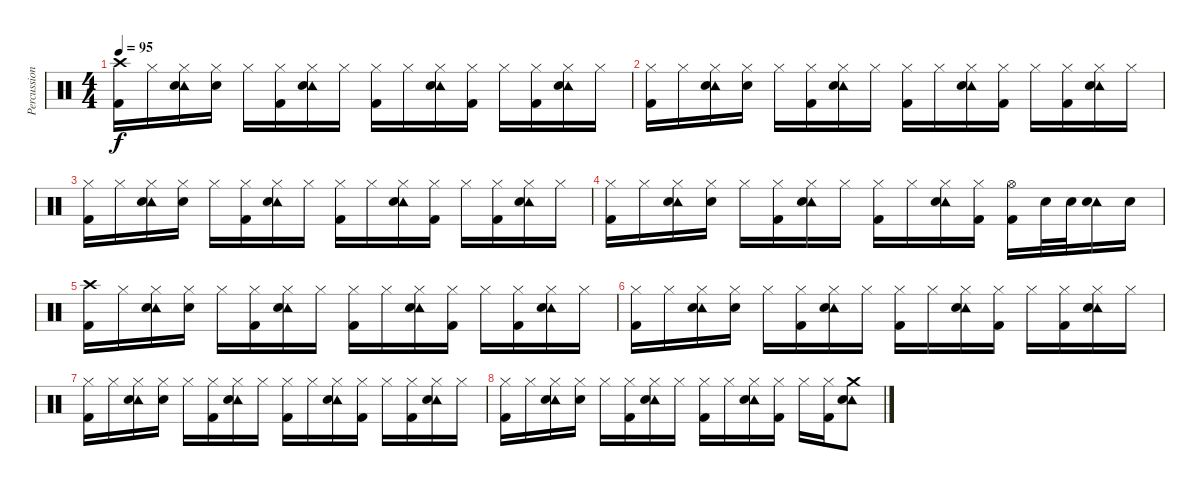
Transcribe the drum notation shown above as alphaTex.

\track ("Percussion" "Percussion") {instrument percussion}
\staff {score}
\articulation defaults
\ts (4 4)
\tempo 95
\clef neutral
\ks c
("Crash high (hit)" "Kick (hit) 2").16{dy f} "Hi-Hat (closed)".16 ("Tambourine (hit)" "Hi-Hat (closed)" "Electric Snare (hit)").16 ("Hi-Hat (closed)" "Electric Snare (hit)").16 "Hi-Hat (closed)".16 ("Hi-Hat (closed)" "Kick (hit) 2").16 ("Tambourine (hit)" "Hi-Hat (closed)" "Electric Snare (hit)").16 "Hi-Hat (closed)".16 ("Hi-Hat (closed)" "Kick (hit) 2").16 "Hi-Hat (closed)".16 ("Tambourine (hit)" "Hi-Hat (closed)" "Electric Snare (hit)").16 ("Hi-Hat (closed)" "Kick (hit) 2").16 "Hi-Hat (closed)".16 ("Hi-Hat (closed)" "Kick (hit) 2").16 ("Tambourine (hit)" "Hi-Hat (closed)" "Electric Snare (hit)").16 "Hi-Hat (closed)".16 |
("Hi-Hat (closed)" "Kick (hit) 2").16 "Hi-Hat (closed)".16 ("Tambourine (hit)" "Hi-Hat (closed)" "Electric Snare (hit)").16 ("Hi-Hat (closed)" "Electric Snare (hit)").16 "Hi-Hat (closed)".16 ("Hi-Hat (closed)" "Kick (hit) 2").16 ("Tambourine (hit)" "Hi-Hat (closed)" "Electric Snare (hit)").16 "Hi-Hat (closed)".16 ("Hi-Hat (closed)" "Kick (hit) 2").16 "Hi-Hat (closed)".16 ("Tambourine (hit)" "Hi-Hat (closed)" "Electric Snare (hit)").16 ("Hi-Hat (closed)" "Kick (hit) 2").16 "Hi-Hat (closed)".16 ("Hi-Hat (closed)" "Kick (hit) 2").16 ("Tambourine (hit)" "Hi-Hat (closed)" "Electric Snare (hit)").16 "Hi-Hat (closed)".16 |
("Hi-Hat (closed)" "Kick (hit) 2").16 "Hi-Hat (closed)".16 ("Tambourine (hit)" "Hi-Hat (closed)" "Electric Snare (hit)").16 ("Hi-Hat (closed)" "Electric Snare (hit)").16 "Hi-Hat (closed)".16 ("Hi-Hat (closed)" "Kick (hit) 2").16 ("Tambourine (hit)" "Hi-Hat (closed)" "Electric Snare (hit)").16 "Hi-Hat (closed)".16 ("Hi-Hat (closed)" "Kick (hit) 2").16 "Hi-Hat (closed)".16 ("Tambourine (hit)" "Hi-Hat (closed)" "Electric Snare (hit)").16 ("Hi-Hat (closed)" "Kick (hit) 2").16 "Hi-Hat (closed)".16 ("Hi-Hat (closed)" "Kick (hit) 2").16 ("Tambourine (hit)" "Hi-Hat (closed)" "Electric Snare (hit)").16 "Hi-Hat (closed)".16 |
("Hi-Hat (closed)" "Kick (hit) 2").16 "Hi-Hat (closed)".16 ("Tambourine (hit)" "Hi-Hat (closed)" "Electric Snare (hit)").16 ("Hi-Hat (closed)" "Electric Snare (hit)").16 "Hi-Hat (closed)".16 ("Hi-Hat (closed)" "Kick (hit) 2").16 ("Tambourine (hit)" "Hi-Hat (closed)" "Electric Snare (hit)").16 "Hi-Hat (closed)".16 ("Hi-Hat (closed)" "Kick (hit) 2").16 "Hi-Hat (closed)".16 ("Tambourine (hit)" "Hi-Hat (closed)" "Electric Snare (hit)").16 ("Hi-Hat (closed)" "Kick (hit) 2").16 ("Hi-Hat (open)" "Kick (hit) 2").16 "Electric Snare (hit)".32 "Electric Snare (hit)".32 ("Tambourine (hit)" "Electric Snare (hit)").16 "Electric Snare (hit)".16 |
("Crash high (hit)" "Kick (hit) 2").16 "Hi-Hat (closed)".16 ("Tambourine (hit)" "Hi-Hat (closed)" "Electric Snare (hit)").16 ("Hi-Hat (closed)" "Electric Snare (hit)").16 "Hi-Hat (closed)".16 ("Hi-Hat (closed)" "Kick (hit) 2").16 ("Tambourine (hit)" "Hi-Hat (closed)" "Electric Snare (hit)").16 "Hi-Hat (closed)".16 ("Hi-Hat (closed)" "Kick (hit) 2").16 "Hi-Hat (closed)".16 ("Tambourine (hit)" "Hi-Hat (closed)" "Electric Snare (hit)").16 ("Hi-Hat (closed)" "Kick (hit) 2").16 "Hi-Hat (closed)".16 ("Hi-Hat (closed)" "Kick (hit) 2").16 ("Tambourine (hit)" "Hi-Hat (closed)" "Electric Snare (hit)").16 "Hi-Hat (closed)".16 |
("Hi-Hat (closed)" "Kick (hit) 2").16 "Hi-Hat (closed)".16 ("Tambourine (hit)" "Hi-Hat (closed)" "Electric Snare (hit)").16 ("Hi-Hat (closed)" "Electric Snare (hit)").16 "Hi-Hat (closed)".16 ("Hi-Hat (closed)" "Kick (hit) 2").16 ("Tambourine (hit)" "Hi-Hat (closed)" "Electric Snare (hit)").16 "Hi-Hat (closed)".16 ("Hi-Hat (closed)" "Kick (hit) 2").16 "Hi-Hat (closed)".16 ("Tambourine (hit)" "Hi-Hat (closed)" "Electric Snare (hit)").16 ("Hi-Hat (closed)" "Kick (hit) 2").16 "Hi-Hat (closed)".16 ("Hi-Hat (closed)" "Kick (hit) 2").16 ("Tambourine (hit)" "Hi-Hat (closed)" "Electric Snare (hit)").16 "Hi-Hat (closed)".16 |
("Hi-Hat (closed)" "Kick (hit) 2").16 "Hi-Hat (closed)".16 ("Tambourine (hit)" "Hi-Hat (closed)" "Electric Snare (hit)").16 ("Hi-Hat (closed)" "Electric Snare (hit)").16 "Hi-Hat (closed)".16 ("Hi-Hat (closed)" "Kick (hit) 2").16 ("Tambourine (hit)" "Hi-Hat (closed)" "Electric Snare (hit)").16 "Hi-Hat (closed)".16 ("Hi-Hat (closed)" "Kick (hit) 2").16 "Hi-Hat (closed)".16 ("Tambourine (hit)" "Hi-Hat (closed)" "Electric Snare (hit)").16 ("Hi-Hat (closed)" "Kick (hit) 2").16 "Hi-Hat (closed)".16 ("Hi-Hat (closed)" "Kick (hit) 2").16 ("Tambourine (hit)" "Hi-Hat (closed)" "Electric Snare (hit)").16 "Hi-Hat (closed)".16 |
("Hi-Hat (closed)" "Kick (hit) 2").16 "Hi-Hat (closed)".16 ("Tambourine (hit)" "Hi-Hat (closed)" "Electric Snare (hit)").16 ("Hi-Hat (closed)" "Electric Snare (hit)").16 "Hi-Hat (closed)".16 ("Hi-Hat (closed)" "Kick (hit) 2").16 ("Tambourine (hit)" "Hi-Hat (closed)" "Electric Snare (hit)").16 "Hi-Hat (closed)".16 ("Hi-Hat (closed)" "Kick (hit) 2").16 "Hi-Hat (closed)".16 ("Tambourine (hit)" "Hi-Hat (closed)" "Electric Snare (hit)").16 ("Hi-Hat (closed)" "Kick (hit) 2").16 "Hi-Hat (closed)".16 ("Hi-Hat (closed)" "Kick (hit) 2").16 ("Tambourine (hit)" "Crash medium (hit)" "Electric Snare (hit)").8
